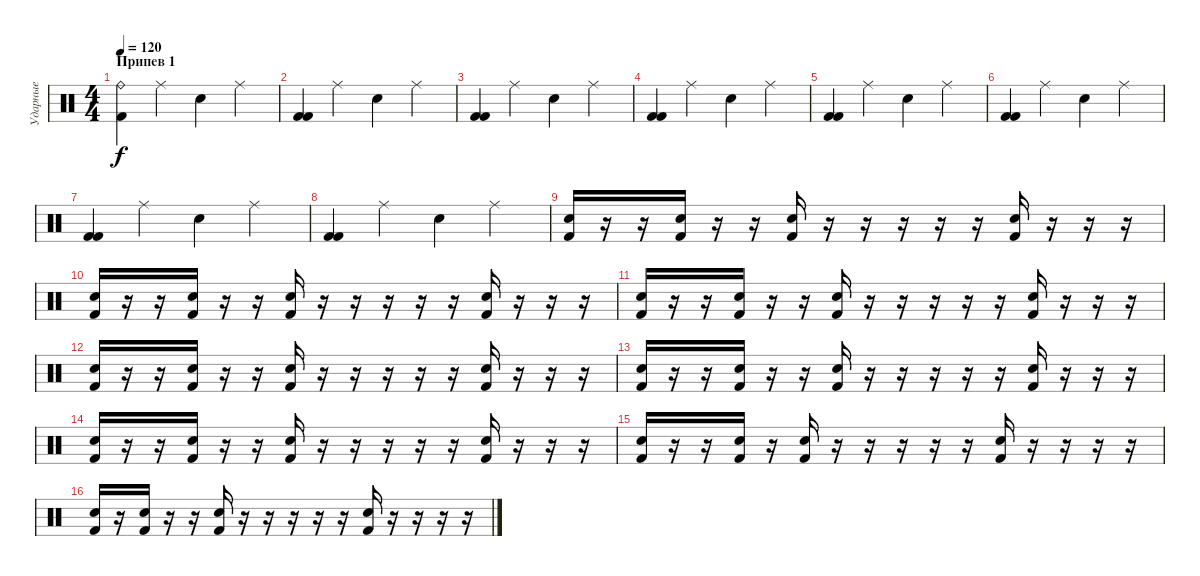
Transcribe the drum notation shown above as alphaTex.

\track ("Ударные" "Ударные") {instrument percussion}
\staff {score}
\articulation defaults
\ts (4 4)
\section ("" "Припев 1")
\tempo 120
\clef neutral
\ks c
("Ride (bell)" "Kick (hit) 2").4{dy f} "Ride (middle)".4 "Snare (hit) 2".4 "Ride (middle)".4 |
("Kick (hit) 2" "Kick (hit) 2").4 "Ride (middle)".4 "Snare (hit) 2".4 "Ride (middle)".4 |
("Kick (hit) 2" "Kick (hit) 2").4 "Ride (middle)".4 "Snare (hit) 2".4 "Ride (middle)".4 |
("Kick (hit) 2" "Kick (hit) 2").4 "Ride (middle)".4 "Snare (hit) 2".4 "Ride (middle)".4 |
("Kick (hit) 2" "Kick (hit) 2").4 "Ride (middle)".4 "Snare (hit) 2".4 "Ride (middle)".4 |
("Kick (hit) 2" "Kick (hit) 2").4 "Ride (middle)".4 "Snare (hit) 2".4 "Ride (middle)".4 |
("Kick (hit) 2" "Kick (hit) 2").4 "Ride (middle)".4 "Snare (hit) 2".4 "Ride (middle)".4 |
("Kick (hit) 2" "Kick (hit) 2").4 "Ride (middle)".4 "Snare (hit) 2".4 "Ride (middle)".4 |
("Electric Snare (hit)" "Kick (hit) 2").16 r.16 r.16 ("Electric Snare (hit)" "Kick (hit) 2").16 r.16 r.16 ("Electric Snare (hit)" "Kick (hit) 2").16 r.16 r.16 r.16 r.16 r.16 ("Electric Snare (hit)" "Kick (hit) 2").16 r.16 r.16 r.16 |
("Electric Snare (hit)" "Kick (hit) 2").16 r.16 r.16 ("Electric Snare (hit)" "Kick (hit) 2").16 r.16 r.16 ("Electric Snare (hit)" "Kick (hit) 2").16 r.16 r.16 r.16 r.16 r.16 ("Electric Snare (hit)" "Kick (hit) 2").16 r.16 r.16 r.16 |
("Electric Snare (hit)" "Kick (hit) 2").16 r.16 r.16 ("Electric Snare (hit)" "Kick (hit) 2").16 r.16 r.16 ("Electric Snare (hit)" "Kick (hit) 2").16 r.16 r.16 r.16 r.16 r.16 ("Electric Snare (hit)" "Kick (hit) 2").16 r.16 r.16 r.16 |
("Electric Snare (hit)" "Kick (hit) 2").16 r.16 r.16 ("Electric Snare (hit)" "Kick (hit) 2").16 r.16 r.16 ("Electric Snare (hit)" "Kick (hit) 2").16 r.16 r.16 r.16 r.16 r.16 ("Electric Snare (hit)" "Kick (hit) 2").16 r.16 r.16 r.16 |
("Electric Snare (hit)" "Kick (hit) 2").16 r.16 r.16 ("Electric Snare (hit)" "Kick (hit) 2").16 r.16 r.16 ("Electric Snare (hit)" "Kick (hit) 2").16 r.16 r.16 r.16 r.16 r.16 ("Electric Snare (hit)" "Kick (hit) 2").16 r.16 r.16 r.16 |
("Electric Snare (hit)" "Kick (hit) 2").16 r.16 r.16 ("Electric Snare (hit)" "Kick (hit) 2").16 r.16 r.16 ("Electric Snare (hit)" "Kick (hit) 2").16 r.16 r.16 r.16 r.16 r.16 ("Electric Snare (hit)" "Kick (hit) 2").16 r.16 r.16 r.16 |
("Electric Snare (hit)" "Kick (hit) 2").16 r.16 r.16 ("Electric Snare (hit)" "Kick (hit) 2").16 r.16 ("Electric Snare (hit)" "Kick (hit) 2").16 r.16 r.16 r.16 r.16 r.16 ("Electric Snare (hit)" "Kick (hit) 2").16 r.16 r.16 r.16 r.16 |
("Electric Snare (hit)" "Kick (hit) 2").16 r.16 ("Electric Snare (hit)" "Kick (hit) 2").16 r.16 r.16 ("Electric Snare (hit)" "Kick (hit) 2").16 r.16 r.16 r.16 r.16 r.16 ("Electric Snare (hit)" "Kick (hit) 2").16 r.16 r.16 r.16 r.16
